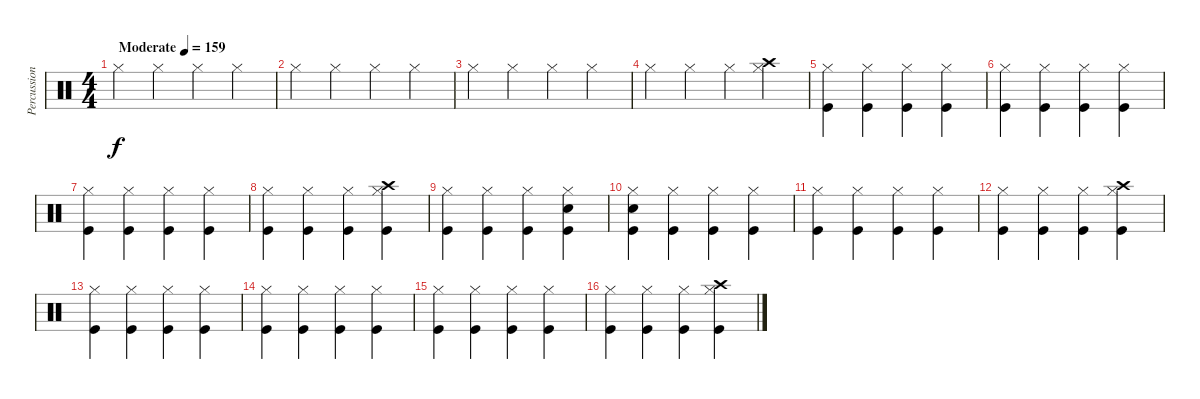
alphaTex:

\track ("Percussion" "Percussion") {instrument percussion}
\staff {score}
\articulation defaults
\ts (4 4)
\tempo (159 "Moderate")
\clef neutral
\ks c "Hi-Hat (closed)".4{dy f} "Hi-Hat (closed)".4 "Hi-Hat (closed)".4 "Hi-Hat (closed)".4
|
"Hi-Hat (closed)".4 "Hi-Hat (closed)".4 "Hi-Hat (closed)".4 "Hi-Hat (closed)".4 |
"Hi-Hat (closed)".4 "Hi-Hat (closed)".4 "Hi-Hat (closed)".4 "Hi-Hat (closed)".4 |
"Hi-Hat (closed)".4 "Hi-Hat (closed)".4 "Hi-Hat (closed)".4 ("Crash high (hit)" "Hi-Hat (closed)").4 |
("Kick (hit)" "Hi-Hat (closed)").4 ("Kick (hit)" "Hi-Hat (closed)").4 ("Kick (hit)" "Hi-Hat (closed)").4 ("Kick (hit)" "Hi-Hat (closed)").4 |
("Kick (hit)" "Hi-Hat (closed)").4 ("Kick (hit)" "Hi-Hat (closed)").4 ("Kick (hit)" "Hi-Hat (closed)").4 ("Kick (hit)" "Hi-Hat (closed)").4 |
("Kick (hit)" "Hi-Hat (closed)").4 ("Kick (hit)" "Hi-Hat (closed)").4 ("Kick (hit)" "Hi-Hat (closed)").4 ("Kick (hit)" "Hi-Hat (closed)").4 |
("Kick (hit)" "Hi-Hat (closed)").4 ("Kick (hit)" "Hi-Hat (closed)").4 ("Kick (hit)" "Hi-Hat (closed)").4 ("Kick (hit)" "Crash high (hit)" "Hi-Hat (closed)").4 |
("Kick (hit)" "Hi-Hat (closed)").4 ("Kick (hit)" "Hi-Hat (closed)").4 ("Kick (hit)" "Hi-Hat (closed)").4 ("Snare (hit) 2" "Kick (hit)" "Hi-Hat (closed)").4 |
("Snare (hit) 2" "Kick (hit)" "Hi-Hat (closed)").4 ("Kick (hit)" "Hi-Hat (closed)").4 ("Kick (hit)" "Hi-Hat (closed)").4 ("Kick (hit)" "Hi-Hat (closed)").4 |
("Kick (hit)" "Hi-Hat (closed)").4 ("Kick (hit)" "Hi-Hat (closed)").4 ("Kick (hit)" "Hi-Hat (closed)").4 ("Kick (hit)" "Hi-Hat (closed)").4 |
("Kick (hit)" "Hi-Hat (closed)").4 ("Kick (hit)" "Hi-Hat (closed)").4 ("Kick (hit)" "Hi-Hat (closed)").4 ("Kick (hit)" "Crash high (hit)" "Hi-Hat (closed)").4 |
("Kick (hit)" "Hi-Hat (closed)").4 ("Kick (hit)" "Hi-Hat (closed)").4 ("Kick (hit)" "Hi-Hat (closed)").4 ("Kick (hit)" "Hi-Hat (closed)").4 |
("Kick (hit)" "Hi-Hat (closed)").4 ("Kick (hit)" "Hi-Hat (closed)").4 ("Kick (hit)" "Hi-Hat (closed)").4 ("Kick (hit)" "Hi-Hat (closed)").4 |
("Kick (hit)" "Hi-Hat (closed)").4 ("Kick (hit)" "Hi-Hat (closed)").4 ("Kick (hit)" "Hi-Hat (closed)").4 ("Kick (hit)" "Hi-Hat (closed)").4 |
("Kick (hit)" "Hi-Hat (closed)").4 ("Kick (hit)" "Hi-Hat (closed)").4 ("Kick (hit)" "Hi-Hat (closed)").4 ("Kick (hit)" "Crash high (hit)" "Hi-Hat (closed)").4
